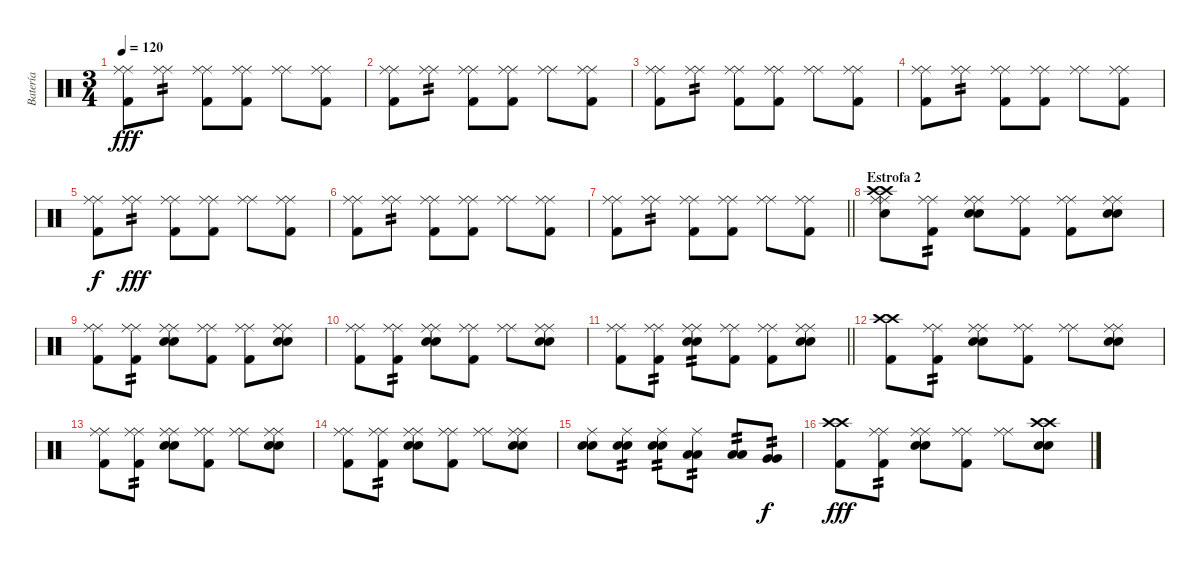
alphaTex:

\track ("Batería" "Batería") {instrument percussion}
\staff {score}
\articulation defaults
\ts (3 4)
\tempo 120
\clef neutral
\ks c
("Ride (middle)" "Ride (middle)" "Kick (hit) 2").8{dy fff} ("Ride (middle)" "Ride (middle)").8{tp 2} ("Ride (middle)" "Ride (middle)" "Kick (hit) 2").8 ("Ride (middle)" "Ride (middle)" "Kick (hit) 2").8 ("Ride (middle)" "Ride (middle)").8 ("Ride (middle)" "Ride (middle)" "Kick (hit) 2").8 |
("Ride (middle)" "Ride (middle)" "Kick (hit) 2").8 ("Ride (middle)" "Ride (middle)").8{tp 2} ("Ride (middle)" "Ride (middle)" "Kick (hit) 2").8 ("Ride (middle)" "Ride (middle)" "Kick (hit) 2").8 ("Ride (middle)" "Ride (middle)").8 ("Ride (middle)" "Ride (middle)" "Kick (hit) 2").8 |
("Ride (middle)" "Ride (middle)" "Kick (hit) 2").8 ("Ride (middle)" "Ride (middle)").8{tp 2} ("Ride (middle)" "Ride (middle)" "Kick (hit) 2").8 ("Ride (middle)" "Ride (middle)" "Kick (hit) 2").8 ("Ride (middle)" "Ride (middle)").8 ("Ride (middle)" "Ride (middle)" "Kick (hit) 2").8 |
("Ride (middle)" "Ride (middle)" "Kick (hit) 2").8 ("Ride (middle)" "Ride (middle)").8{tp 2} ("Ride (middle)" "Ride (middle)" "Kick (hit) 2").8 ("Ride (middle)" "Ride (middle)" "Kick (hit) 2").8 ("Ride (middle)" "Ride (middle)").8 ("Ride (middle)" "Ride (middle)" "Kick (hit) 2").8 |
("Ride (middle)" "Ride (middle)" "Kick (hit) 2").8{dy f} ("Ride (middle)" "Ride (middle)").8{tp 2 dy fff} ("Ride (middle)" "Ride (middle)" "Kick (hit) 2").8 ("Ride (middle)" "Ride (middle)" "Kick (hit) 2").8 ("Ride (middle)" "Ride (middle)").8 ("Ride (middle)" "Ride (middle)" "Kick (hit) 2").8 |
("Ride (middle)" "Ride (middle)" "Kick (hit) 2").8 ("Ride (middle)" "Ride (middle)").8{tp 2} ("Ride (middle)" "Ride (middle)" "Kick (hit) 2").8 ("Ride (middle)" "Ride (middle)" "Kick (hit) 2").8 ("Ride (middle)" "Ride (middle)").8 ("Ride (middle)" "Ride (middle)" "Kick (hit) 2").8 |
\barLineRight lightlight
("Ride (middle)" "Ride (middle)" "Kick (hit) 2").8 ("Ride (middle)" "Ride (middle)").8{tp 2} ("Ride (middle)" "Ride (middle)" "Kick (hit) 2").8 ("Ride (middle)" "Ride (middle)" "Kick (hit) 2").8 ("Ride (middle)" "Ride (middle)").8 ("Ride (middle)" "Ride (middle)" "Kick (hit) 2").8 |
\section ("" "Estrofa 2")
("Ride (middle)" "Ride (middle)" "Crash high (hit)" "Crash high (hit)" "Electric Snare (hit)").8 ("Ride (middle)" "Ride (middle)" "Kick (hit) 2").8{tp 2} ("Ride (middle)" "Ride (middle)" "Electric Snare (hit)" "Electric Snare (hit)").8 ("Ride (middle)" "Ride (middle)" "Kick (hit) 2").8 ("Ride (middle)" "Ride (middle)" "Kick (hit) 2").8 ("Ride (middle)" "Ride (middle)" "Electric Snare (hit)" "Electric Snare (hit)").8 |
("Ride (middle)" "Ride (middle)" "Kick (hit) 2").8 ("Ride (middle)" "Ride (middle)" "Kick (hit) 2").8{tp 2} ("Ride (middle)" "Ride (middle)" "Electric Snare (hit)" "Electric Snare (hit)").8 ("Ride (middle)" "Ride (middle)" "Kick (hit) 2").8 ("Ride (middle)" "Ride (middle)" "Kick (hit) 2").8 ("Ride (middle)" "Ride (middle)" "Electric Snare (hit)" "Electric Snare (hit)").8 |
("Ride (middle)" "Ride (middle)" "Kick (hit) 2").8 ("Ride (middle)" "Ride (middle)" "Kick (hit) 2").8{tp 2} ("Ride (middle)" "Ride (middle)" "Electric Snare (hit)" "Electric Snare (hit)").8 ("Ride (middle)" "Ride (middle)" "Kick (hit) 2").8 ("Ride (middle)" "Ride (middle)").8 ("Ride (middle)" "Ride (middle)" "Electric Snare (hit)" "Electric Snare (hit)").8 |
\barLineRight lightlight
("Ride (middle)" "Ride (middle)" "Kick (hit) 2").8 ("Ride (middle)" "Ride (middle)" "Kick (hit) 2").8{tp 2} ("Ride (middle)" "Ride (middle)" "Electric Snare (hit)" "Electric Snare (hit)").8{tp 2} ("Ride (middle)" "Ride (middle)" "Kick (hit) 2").8 ("Ride (middle)" "Ride (middle)" "Kick (hit) 2").8 ("Ride (middle)" "Ride (middle)" "Electric Snare (hit)" "Electric Snare (hit)").8 |
("Crash high (hit)" "Crash high (hit)" "Kick (hit) 2").8 ("Ride (middle)" "Ride (middle)" "Kick (hit) 2").8{tp 2} ("Ride (middle)" "Ride (middle)" "Electric Snare (hit)" "Electric Snare (hit)").8 ("Ride (middle)" "Ride (middle)" "Kick (hit) 2").8 ("Ride (middle)" "Ride (middle)").8 ("Ride (middle)" "Ride (middle)" "Electric Snare (hit)" "Electric Snare (hit)").8 |
("Ride (middle)" "Ride (middle)" "Kick (hit) 2").8 ("Ride (middle)" "Ride (middle)" "Kick (hit) 2").8{tp 2} ("Ride (middle)" "Ride (middle)" "Electric Snare (hit)" "Electric Snare (hit)").8 ("Ride (middle)" "Ride (middle)" "Kick (hit) 2").8 ("Ride (middle)" "Ride (middle)").8 ("Ride (middle)" "Ride (middle)" "Electric Snare (hit)" "Electric Snare (hit)").8 |
("Ride (middle)" "Ride (middle)" "Kick (hit) 2").8 ("Ride (middle)" "Ride (middle)" "Kick (hit) 2").8{tp 2} ("Ride (middle)" "Ride (middle)" "Electric Snare (hit)" "Electric Snare (hit)").8 ("Ride (middle)" "Ride (middle)" "Kick (hit) 2").8 ("Ride (middle)" "Ride (middle)").8 ("Ride (middle)" "Ride (middle)" "Electric Snare (hit)" "Electric Snare (hit)").8 |
("Ride (middle)" "Electric Snare (hit)" "Electric Snare (hit)").8 ("Ride (middle)" "Electric Snare (hit)" "Electric Snare (hit)").8{tp 2} ("Ride (middle)" "Electric Snare (hit)" "Electric Snare (hit)").8{tp 2} ("Ride (middle)" "Low Tom (hit)" "Low Tom (hit)").8{tp 2} ("Low Tom (hit)" "Low Tom (hit)").8{tp 2} ("Very Low Tom (hit)" "Very Low Tom (hit)").8{tp 2 dy f} |
("Crash high (hit)" "Crash high (hit)" "Kick (hit) 2").8{dy fff} ("Ride (middle)" "Ride (middle)" "Kick (hit) 2").8{tp 2} ("Ride (middle)" "Ride (middle)" "Electric Snare (hit)" "Electric Snare (hit)").8 ("Ride (middle)" "Ride (middle)" "Kick (hit) 2").8 ("Ride (middle)" "Ride (middle)").8 ("Crash high (hit)" "Crash high (hit)" "Electric Snare (hit)" "Electric Snare (hit)").8
